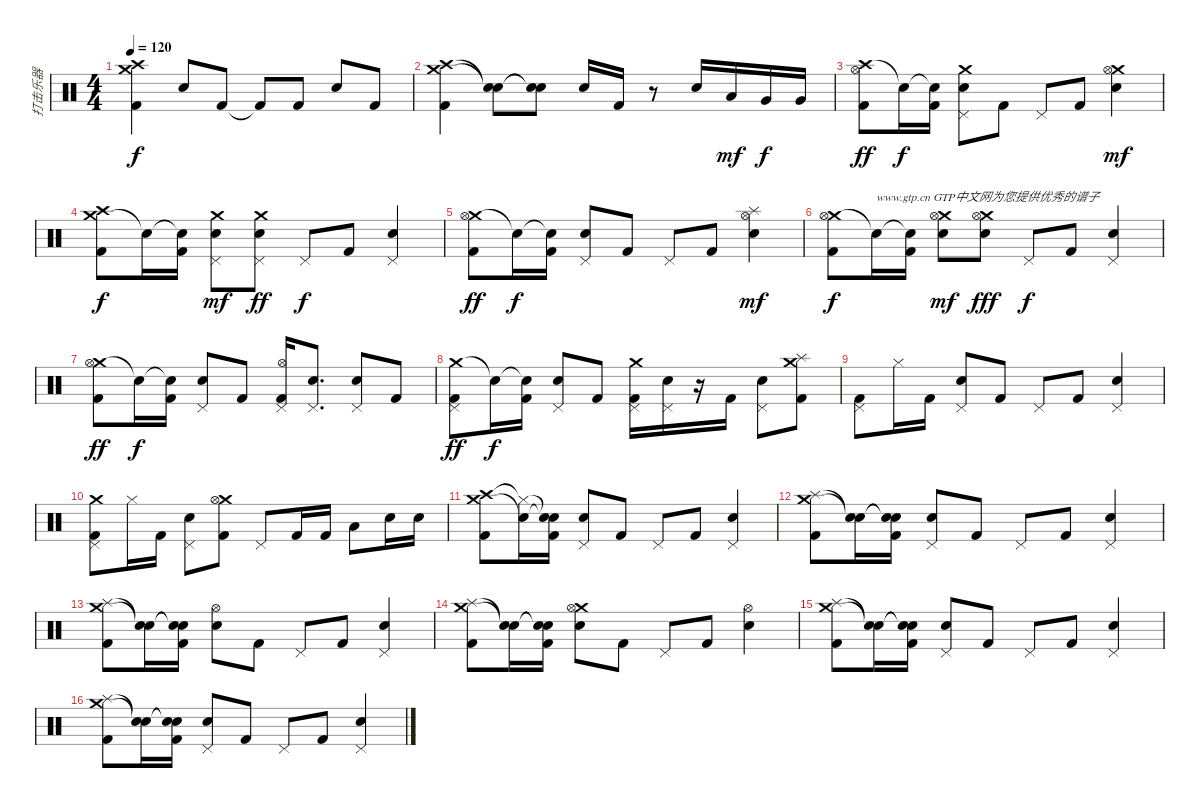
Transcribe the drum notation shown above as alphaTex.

\track ("打击乐器" "打击乐器") {instrument percussion}
\staff {score}
\articulation defaults
\ts (4 4)
\tempo 120
\clef neutral
\ks c
("Crash medium (hit)" "Crash high (hit)" "Kick (hit) 2").4{dy f} "Metronome (bell)".8 "Kick (hit) 2".8 "Kick (hit) 2"{t}.8 "Kick (hit) 2".8 "Metronome (bell)".8 "Kick (hit) 2".8 |
("Crash medium (hit)" "Crash high (hit)" "Kick (hit) 2").4 ("Snare (hit)"{t} "Snare (hit)"{t}).8 ("Snare (hit)"{t} "Snare (hit)"{t}).8 "Metronome (bell)".16 "Kick (hit) 2".16 r.8 "Metronome (bell)".16 "Low Tom (hit)".16{dy mf} "Very Low Tom (hit)".16{dy f} "Very Low Tom (hit)".16 |
("Crash high (hit)" "Hi-Hat (open)" "Kick (hit) 2").8{dy ff} "Snare (hit)"{t}.16{dy f} ("Snare (hit)"{t} "Kick (hit) 2").16 ("Crash medium (hit)" "Pedal Hi-Hat (hit)" "Metronome (bell)").8 "Kick (hit) 2".8 "Pedal Hi-Hat (hit)".8 "Kick (hit) 2".8 ("Crash medium (hit)" "Hi-Hat (open)" "Metronome (bell)").4{dy mf} |
("Crash medium (hit)" "Crash high (hit)" "Kick (hit) 2").8{dy f} "Snare (hit)"{t}.16 ("Snare (hit)"{t} "Kick (hit) 2").16 ("Crash medium (hit)" "Pedal Hi-Hat (hit)" "Metronome (bell)").8{dy mf} ("Crash medium (hit)" "Pedal Hi-Hat (hit)" "Metronome (bell)").8{dy ff} "Pedal Hi-Hat (hit)".8{dy f} "Kick (hit) 2".8 ("Pedal Hi-Hat (hit)" "Metronome (bell)").4 |
("Crash medium (hit)" "Hi-Hat (open)" "Kick (hit) 2").8{dy ff} "Snare (hit)"{t}.16{dy f} ("Snare (hit)"{t} "Kick (hit) 2").16 ("Pedal Hi-Hat (hit)" "Metronome (bell)").8 "Kick (hit) 2".8 "Pedal Hi-Hat (hit)".8 "Kick (hit) 2".8 ("Splash (hit)" "Hi-Hat (open)" "Metronome (bell)").4{dy mf} |
("Crash medium (hit)" "Hi-Hat (open)" "Kick (hit) 2").8{dy f} "Snare (hit)"{t}.16{txt "www.gtp.cn GTP中文网为您提供优秀的谱子"} ("Snare (hit)"{t} "Kick (hit) 2").16 ("Crash medium (hit)" "Hi-Hat (open)" "Metronome (bell)").8{dy mf} ("Crash medium (hit)" "Hi-Hat (open)" "Metronome (bell)").8{dy fff} "Pedal Hi-Hat (hit)".8{dy f} "Kick (hit) 2".8 ("Pedal Hi-Hat (hit)" "Metronome (bell)").4 |
("Crash medium (hit)" "Hi-Hat (open)" "Kick (hit) 2").8{dy ff} "Snare (hit)"{t}.16{dy f} ("Snare (hit)"{t} "Kick (hit) 2").16 ("Pedal Hi-Hat (hit)" "Metronome (bell)").8 "Kick (hit) 2".8 ("Hi-Hat (open)" "Pedal Hi-Hat (hit)" "Kick (hit) 2").16 ("Pedal Hi-Hat (hit)" "Metronome (bell)").8{d} ("Pedal Hi-Hat (hit)" "Metronome (bell)").8 "Kick (hit) 2".8 |
("Crash medium (hit)" "Pedal Hi-Hat (hit)" "Kick (hit) 2").8{dy ff} "Snare (hit)"{t}.16{dy f} ("Snare (hit)"{t} "Kick (hit) 2").16 ("Pedal Hi-Hat (hit)" "Metronome (bell)").8 "Kick (hit) 2".8 ("Crash medium (hit)" "Pedal Hi-Hat (hit)" "Kick (hit) 2").16 ("Pedal Hi-Hat (hit)" "Metronome (bell)").16 r.16 "Kick (hit) 2".16 ("Pedal Hi-Hat (hit)" "Metronome (bell)").8 ("Crash medium (hit)" "Splash (hit)" "Kick (hit) 2").8 |
("Pedal Hi-Hat (hit)" "Kick (hit) 2").8 "Hi-Hat (closed)".16 "Kick (hit) 2".16 ("Pedal Hi-Hat (hit)" "Metronome (bell)").8 "Kick (hit) 2".8 "Pedal Hi-Hat (hit)".8 "Kick (hit) 2".8 ("Pedal Hi-Hat (hit)" "Metronome (bell)").4 |
("Crash medium (hit)" "Pedal Hi-Hat (hit)" "Kick (hit) 2").8 "Hi-Hat (closed)".16 "Kick (hit) 2".16 ("Pedal Hi-Hat (hit)" "Metronome (bell)").8 ("Crash medium (hit)" "Hi-Hat (open)" "Kick (hit) 2").8 "Pedal Hi-Hat (hit)".8 "Kick (hit) 2".16 "Kick (hit) 2".16 "Low Floor Tom (hit)".8 "Metronome (bell)".16 "Metronome (bell)".16 |
("Crash medium (hit)" "Crash high (hit)" "Kick (hit) 2").8 ("Snare (hit)"{t} "Hi-Hat (closed)"{t}).16 ("Snare (hit)"{t} "Snare (hit)"{t} "Kick (hit) 2").16 ("Pedal Hi-Hat (hit)" "Metronome (bell)").8 "Kick (hit) 2".8 "Pedal Hi-Hat (hit)".8 "Kick (hit) 2".8 ("Pedal Hi-Hat (hit)" "Metronome (bell)").4 |
("Crash medium (hit)" "Splash (hit)" "Kick (hit) 2").8 ("Snare (hit)"{t} "Snare (hit)"{t}).16 ("Snare (hit)"{t} "Snare (hit)"{t} "Kick (hit) 2").16 ("Pedal Hi-Hat (hit)" "Metronome (bell)").8 "Kick (hit) 2".8 "Pedal Hi-Hat (hit)".8 "Kick (hit) 2".8 ("Pedal Hi-Hat (hit)" "Metronome (bell)").4 |
("Crash medium (hit)" "Splash (hit)" "Kick (hit) 2").8 ("Snare (hit)"{t} "Snare (hit)"{t}).16 ("Snare (hit)"{t} "Snare (hit)"{t} "Kick (hit) 2").16 ("Hi-Hat (open)" "Metronome (bell)").8 "Kick (hit) 2".8 "Pedal Hi-Hat (hit)".8 "Kick (hit) 2".8 ("Pedal Hi-Hat (hit)" "Metronome (bell)").4 |
("Crash medium (hit)" "Splash (hit)" "Kick (hit) 2").8 ("Snare (hit)"{t} "Snare (hit)"{t}).16 ("Snare (hit)"{t} "Snare (hit)"{t} "Kick (hit) 2").16 ("Crash medium (hit)" "Hi-Hat (open)" "Metronome (bell)").8 "Kick (hit) 2".8 "Pedal Hi-Hat (hit)".8 "Kick (hit) 2".8 ("Hi-Hat (open)" "Metronome (bell)").4 |
("Crash medium (hit)" "Splash (hit)" "Kick (hit) 2").8 ("Snare (hit)"{t} "Snare (hit)"{t}).16 ("Snare (hit)"{t} "Snare (hit)"{t} "Kick (hit) 2").16 ("Pedal Hi-Hat (hit)" "Metronome (bell)").8 "Kick (hit) 2".8 "Pedal Hi-Hat (hit)".8 "Kick (hit) 2".8 ("Pedal Hi-Hat (hit)" "Metronome (bell)").4 |
("Crash medium (hit)" "Splash (hit)" "Kick (hit) 2").8 ("Snare (hit)"{t} "Snare (hit)"{t}).16 ("Snare (hit)"{t} "Snare (hit)"{t} "Kick (hit) 2").16 ("Pedal Hi-Hat (hit)" "Metronome (bell)").8 "Kick (hit) 2".8 "Pedal Hi-Hat (hit)".8 "Kick (hit) 2".8 ("Pedal Hi-Hat (hit)" "Metronome (bell)").4
